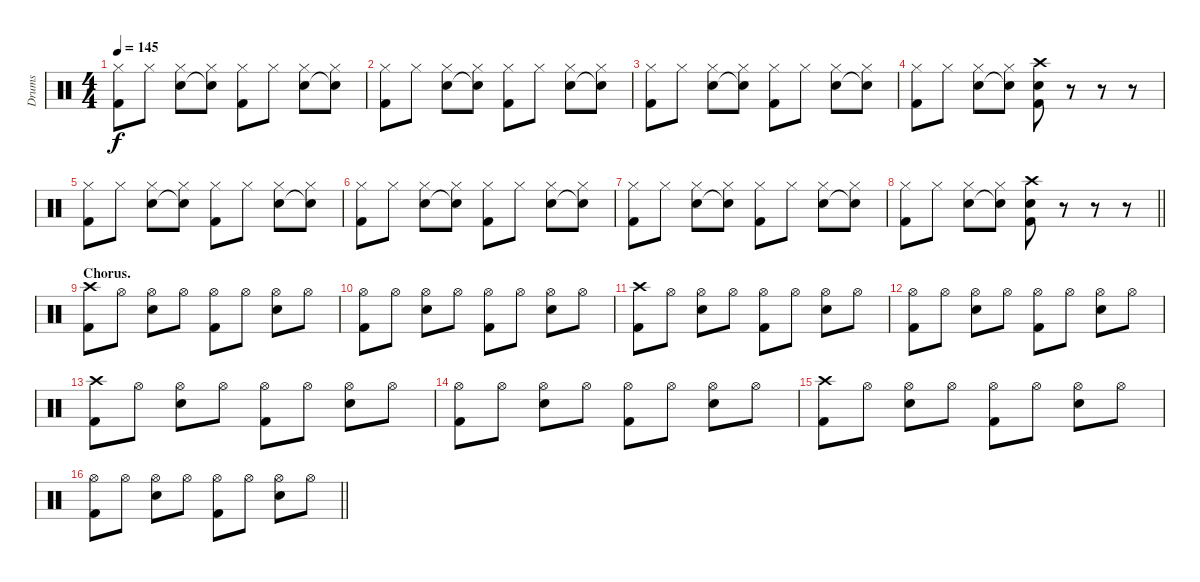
\track ("Drums" "Drums") {instrument percussion}
\staff {score}
\articulation defaults
\ts (4 4)
\tempo 145
\clef neutral
\ks c
("Hi-Hat (closed)" "Kick (hit) 2").8{dy f} "Hi-Hat (closed)".8 ("Hi-Hat (closed)" "Snare (hit) 2").8 ("Hi-Hat (closed)" "Snare (hit)"{t}).8 ("Hi-Hat (closed)" "Kick (hit) 2").8 "Hi-Hat (closed)".8 ("Hi-Hat (closed)" "Snare (hit) 2").8 ("Hi-Hat (closed)" "Snare (hit)"{t}).8 |
("Hi-Hat (closed)" "Kick (hit) 2").8 "Hi-Hat (closed)".8 ("Hi-Hat (closed)" "Snare (hit) 2").8 ("Hi-Hat (closed)" "Snare (hit)"{t}).8 ("Hi-Hat (closed)" "Kick (hit) 2").8 "Hi-Hat (closed)".8 ("Hi-Hat (closed)" "Snare (hit) 2").8 ("Hi-Hat (closed)" "Snare (hit)"{t}).8 |
("Hi-Hat (closed)" "Kick (hit) 2").8 "Hi-Hat (closed)".8 ("Hi-Hat (closed)" "Snare (hit) 2").8 ("Hi-Hat (closed)" "Snare (hit)"{t}).8 ("Hi-Hat (closed)" "Kick (hit) 2").8 "Hi-Hat (closed)".8 ("Hi-Hat (closed)" "Snare (hit) 2").8 ("Hi-Hat (closed)" "Snare (hit)"{t}).8 |
("Hi-Hat (closed)" "Kick (hit) 2").8 "Hi-Hat (closed)".8 ("Hi-Hat (closed)" "Snare (hit) 2").8 ("Hi-Hat (closed)" "Snare (hit)"{t}).8 ("Crash high (hit)" "Snare (hit) 2" "Kick (hit) 2").8 r.8 r.8 r.8 |
("Hi-Hat (closed)" "Kick (hit) 2").8 "Hi-Hat (closed)".8 ("Hi-Hat (closed)" "Snare (hit) 2").8 ("Hi-Hat (closed)" "Snare (hit)"{t}).8 ("Hi-Hat (closed)" "Kick (hit) 2").8 "Hi-Hat (closed)".8 ("Hi-Hat (closed)" "Snare (hit) 2").8 ("Hi-Hat (closed)" "Snare (hit)"{t}).8 |
("Hi-Hat (closed)" "Kick (hit) 2").8 "Hi-Hat (closed)".8 ("Hi-Hat (closed)" "Snare (hit) 2").8 ("Hi-Hat (closed)" "Snare (hit)"{t}).8 ("Hi-Hat (closed)" "Kick (hit) 2").8 "Hi-Hat (closed)".8 ("Hi-Hat (closed)" "Snare (hit) 2").8 ("Hi-Hat (closed)" "Snare (hit)"{t}).8 |
("Hi-Hat (closed)" "Kick (hit) 2").8 "Hi-Hat (closed)".8 ("Hi-Hat (closed)" "Snare (hit) 2").8 ("Hi-Hat (closed)" "Snare (hit)"{t}).8 ("Hi-Hat (closed)" "Kick (hit) 2").8 "Hi-Hat (closed)".8 ("Hi-Hat (closed)" "Snare (hit) 2").8 ("Hi-Hat (closed)" "Snare (hit)"{t}).8 |
\barLineRight lightlight
("Hi-Hat (closed)" "Kick (hit) 2").8 "Hi-Hat (closed)".8 ("Hi-Hat (closed)" "Snare (hit) 2").8 ("Hi-Hat (closed)" "Snare (hit)"{t}).8 ("Crash high (hit)" "Snare (hit) 2" "Kick (hit) 2").8 r.8 r.8 r.8 |
\section ("" "Chorus.")
("Crash high (hit)" "Kick (hit) 2").8 "Hi-Hat (open)".8 ("Hi-Hat (open)" "Snare (hit) 2").8 "Hi-Hat (open)".8 ("Hi-Hat (open)" "Kick (hit) 2").8 "Hi-Hat (open)".8 ("Hi-Hat (open)" "Snare (hit) 2").8 "Hi-Hat (open)".8 |
("Hi-Hat (open)" "Kick (hit) 2").8 "Hi-Hat (open)".8 ("Hi-Hat (open)" "Snare (hit) 2").8 "Hi-Hat (open)".8 ("Hi-Hat (open)" "Kick (hit) 2").8 "Hi-Hat (open)".8 ("Hi-Hat (open)" "Snare (hit) 2").8 "Hi-Hat (open)".8 |
("Crash high (hit)" "Kick (hit) 2").8 "Hi-Hat (open)".8 ("Hi-Hat (open)" "Snare (hit) 2").8 "Hi-Hat (open)".8 ("Hi-Hat (open)" "Kick (hit) 2").8 "Hi-Hat (open)".8 ("Hi-Hat (open)" "Snare (hit) 2").8 "Hi-Hat (open)".8 |
("Hi-Hat (open)" "Kick (hit) 2").8 "Hi-Hat (open)".8 ("Hi-Hat (open)" "Snare (hit) 2").8 "Hi-Hat (open)".8 ("Hi-Hat (open)" "Kick (hit) 2").8 "Hi-Hat (open)".8 ("Hi-Hat (open)" "Snare (hit) 2").8 "Hi-Hat (open)".8 |
("Crash high (hit)" "Kick (hit) 2").8 "Hi-Hat (open)".8 ("Hi-Hat (open)" "Snare (hit) 2").8 "Hi-Hat (open)".8 ("Hi-Hat (open)" "Kick (hit) 2").8 "Hi-Hat (open)".8 ("Hi-Hat (open)" "Snare (hit) 2").8 "Hi-Hat (open)".8 |
("Hi-Hat (open)" "Kick (hit) 2").8 "Hi-Hat (open)".8 ("Hi-Hat (open)" "Snare (hit) 2").8 "Hi-Hat (open)".8 ("Hi-Hat (open)" "Kick (hit) 2").8 "Hi-Hat (open)".8 ("Hi-Hat (open)" "Snare (hit) 2").8 "Hi-Hat (open)".8 |
("Crash high (hit)" "Kick (hit) 2").8 "Hi-Hat (open)".8 ("Hi-Hat (open)" "Snare (hit) 2").8 "Hi-Hat (open)".8 ("Hi-Hat (open)" "Kick (hit) 2").8 "Hi-Hat (open)".8 ("Hi-Hat (open)" "Snare (hit) 2").8 "Hi-Hat (open)".8 |
\barLineRight lightlight
("Hi-Hat (open)" "Kick (hit) 2").8 "Hi-Hat (open)".8 ("Hi-Hat (open)" "Snare (hit) 2").8 "Hi-Hat (open)".8 ("Hi-Hat (open)" "Kick (hit) 2").8 "Hi-Hat (open)".8 ("Hi-Hat (open)" "Snare (hit) 2").8 "Hi-Hat (open)".8
